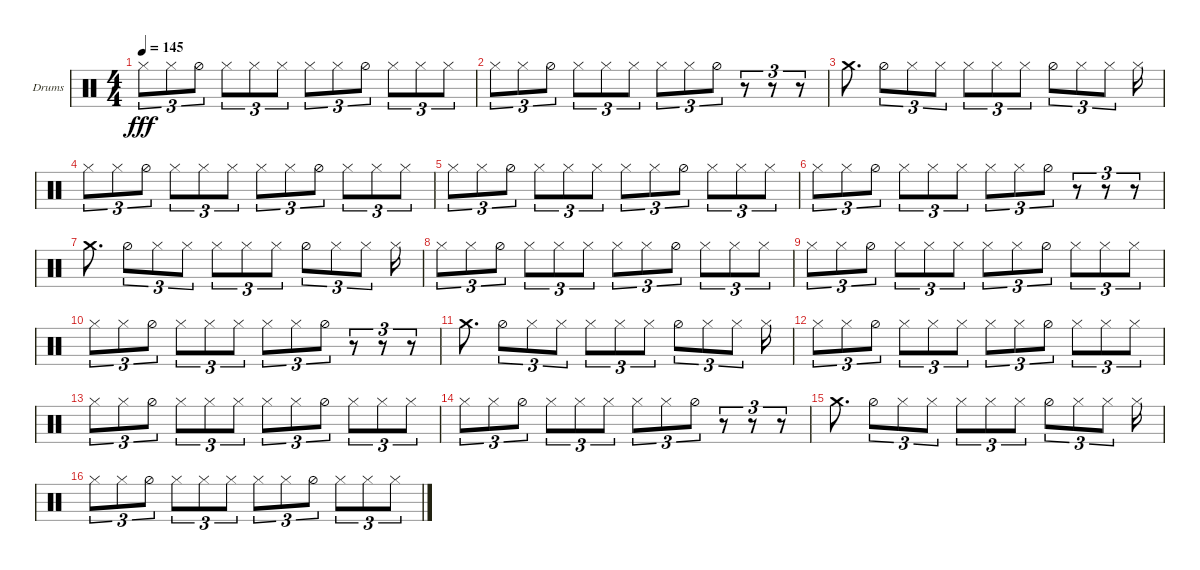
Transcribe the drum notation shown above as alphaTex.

\defaultSystemsLayout 4
\bracketExtendMode groupsimilarinstruments
\firstSystemTrackNameOrientation horizontal
\otherSystemsTrackNameOrientation horizontal
\track ("Helders" "Drums") {instrument percussion}
\staff {score}
\articulation defaults
\ts (4 4)
\tempo 145
\clef neutral
\ks c "Hi-Hat (closed)".8{tu (3 2) dy fff} "Hi-Hat (closed)".8{tu (3 2)} "Hi-Hat (half)".8{tu (3 2)} "Hi-Hat (closed)".8{tu (3 2)} "Hi-Hat (closed)".8{tu (3 2)} "Hi-Hat (closed)".8{tu (3 2)} "Hi-Hat (closed)".8{tu (3 2)} "Hi-Hat (closed)".8{tu (3 2)} "Hi-Hat (half)".8{tu (3 2)} "Hi-Hat (closed)".8{tu (3 2)} "Hi-Hat (closed)".8{tu (3 2)} "Hi-Hat (closed)".8{tu (3 2)}
|
"Hi-Hat (closed)".8{tu (3 2)} "Hi-Hat (closed)".8{tu (3 2)} "Hi-Hat (half)".8{tu (3 2)} "Hi-Hat (closed)".8{tu (3 2)} "Hi-Hat (closed)".8{tu (3 2)} "Hi-Hat (closed)".8{tu (3 2)} "Hi-Hat (closed)".8{tu (3 2)} "Hi-Hat (closed)".8{tu (3 2)} "Hi-Hat (half)".8{tu (3 2)} r.8{tu (3 2)} r.8{tu (3 2)} r.8{tu (3 2)} |
"Crash medium (hit)".8{d} "Hi-Hat (half)".8{tu (3 2)} "Hi-Hat (closed)".8{tu (3 2)} "Hi-Hat (closed)".8{tu (3 2)} "Hi-Hat (closed)".8{tu (3 2)} "Hi-Hat (closed)".8{tu (3 2)} "Hi-Hat (closed)".8{tu (3 2)} "Hi-Hat (half)".8{tu (3 2)} "Hi-Hat (closed)".8{tu (3 2)} "Hi-Hat (closed)".8{tu (3 2)} "Hi-Hat (closed)".16 |
"Hi-Hat (closed)".8{tu (3 2)} "Hi-Hat (closed)".8{tu (3 2)} "Hi-Hat (half)".8{tu (3 2)} "Hi-Hat (closed)".8{tu (3 2)} "Hi-Hat (closed)".8{tu (3 2)} "Hi-Hat (closed)".8{tu (3 2)} "Hi-Hat (closed)".8{tu (3 2)} "Hi-Hat (closed)".8{tu (3 2)} "Hi-Hat (half)".8{tu (3 2)} "Hi-Hat (closed)".8{tu (3 2)} "Hi-Hat (closed)".8{tu (3 2)} "Hi-Hat (closed)".8{tu (3 2)} |
"Hi-Hat (closed)".8{tu (3 2)} "Hi-Hat (closed)".8{tu (3 2)} "Hi-Hat (half)".8{tu (3 2)} "Hi-Hat (closed)".8{tu (3 2)} "Hi-Hat (closed)".8{tu (3 2)} "Hi-Hat (closed)".8{tu (3 2)} "Hi-Hat (closed)".8{tu (3 2)} "Hi-Hat (closed)".8{tu (3 2)} "Hi-Hat (half)".8{tu (3 2)} "Hi-Hat (closed)".8{tu (3 2)} "Hi-Hat (closed)".8{tu (3 2)} "Hi-Hat (closed)".8{tu (3 2)} |
"Hi-Hat (closed)".8{tu (3 2)} "Hi-Hat (closed)".8{tu (3 2)} "Hi-Hat (half)".8{tu (3 2)} "Hi-Hat (closed)".8{tu (3 2)} "Hi-Hat (closed)".8{tu (3 2)} "Hi-Hat (closed)".8{tu (3 2)} "Hi-Hat (closed)".8{tu (3 2)} "Hi-Hat (closed)".8{tu (3 2)} "Hi-Hat (half)".8{tu (3 2)} r.8{tu (3 2)} r.8{tu (3 2)} r.8{tu (3 2)} |
"Crash medium (hit)".8{d} "Hi-Hat (half)".8{tu (3 2)} "Hi-Hat (closed)".8{tu (3 2)} "Hi-Hat (closed)".8{tu (3 2)} "Hi-Hat (closed)".8{tu (3 2)} "Hi-Hat (closed)".8{tu (3 2)} "Hi-Hat (closed)".8{tu (3 2)} "Hi-Hat (half)".8{tu (3 2)} "Hi-Hat (closed)".8{tu (3 2)} "Hi-Hat (closed)".8{tu (3 2)} "Hi-Hat (closed)".16 |
"Hi-Hat (closed)".8{tu (3 2)} "Hi-Hat (closed)".8{tu (3 2)} "Hi-Hat (half)".8{tu (3 2)} "Hi-Hat (closed)".8{tu (3 2)} "Hi-Hat (closed)".8{tu (3 2)} "Hi-Hat (closed)".8{tu (3 2)} "Hi-Hat (closed)".8{tu (3 2)} "Hi-Hat (closed)".8{tu (3 2)} "Hi-Hat (half)".8{tu (3 2)} "Hi-Hat (closed)".8{tu (3 2)} "Hi-Hat (closed)".8{tu (3 2)} "Hi-Hat (closed)".8{tu (3 2)} |
"Hi-Hat (closed)".8{tu (3 2)} "Hi-Hat (closed)".8{tu (3 2)} "Hi-Hat (half)".8{tu (3 2)} "Hi-Hat (closed)".8{tu (3 2)} "Hi-Hat (closed)".8{tu (3 2)} "Hi-Hat (closed)".8{tu (3 2)} "Hi-Hat (closed)".8{tu (3 2)} "Hi-Hat (closed)".8{tu (3 2)} "Hi-Hat (half)".8{tu (3 2)} "Hi-Hat (closed)".8{tu (3 2)} "Hi-Hat (closed)".8{tu (3 2)} "Hi-Hat (closed)".8{tu (3 2)} |
"Hi-Hat (closed)".8{tu (3 2)} "Hi-Hat (closed)".8{tu (3 2)} "Hi-Hat (half)".8{tu (3 2)} "Hi-Hat (closed)".8{tu (3 2)} "Hi-Hat (closed)".8{tu (3 2)} "Hi-Hat (closed)".8{tu (3 2)} "Hi-Hat (closed)".8{tu (3 2)} "Hi-Hat (closed)".8{tu (3 2)} "Hi-Hat (half)".8{tu (3 2)} r.8{tu (3 2)} r.8{tu (3 2)} r.8{tu (3 2)} |
"Crash medium (hit)".8{d} "Hi-Hat (half)".8{tu (3 2)} "Hi-Hat (closed)".8{tu (3 2)} "Hi-Hat (closed)".8{tu (3 2)} "Hi-Hat (closed)".8{tu (3 2)} "Hi-Hat (closed)".8{tu (3 2)} "Hi-Hat (closed)".8{tu (3 2)} "Hi-Hat (half)".8{tu (3 2)} "Hi-Hat (closed)".8{tu (3 2)} "Hi-Hat (closed)".8{tu (3 2)} "Hi-Hat (closed)".16 |
"Hi-Hat (closed)".8{tu (3 2)} "Hi-Hat (closed)".8{tu (3 2)} "Hi-Hat (half)".8{tu (3 2)} "Hi-Hat (closed)".8{tu (3 2)} "Hi-Hat (closed)".8{tu (3 2)} "Hi-Hat (closed)".8{tu (3 2)} "Hi-Hat (closed)".8{tu (3 2)} "Hi-Hat (closed)".8{tu (3 2)} "Hi-Hat (half)".8{tu (3 2)} "Hi-Hat (closed)".8{tu (3 2)} "Hi-Hat (closed)".8{tu (3 2)} "Hi-Hat (closed)".8{tu (3 2)} |
"Hi-Hat (closed)".8{tu (3 2)} "Hi-Hat (closed)".8{tu (3 2)} "Hi-Hat (half)".8{tu (3 2)} "Hi-Hat (closed)".8{tu (3 2)} "Hi-Hat (closed)".8{tu (3 2)} "Hi-Hat (closed)".8{tu (3 2)} "Hi-Hat (closed)".8{tu (3 2)} "Hi-Hat (closed)".8{tu (3 2)} "Hi-Hat (half)".8{tu (3 2)} "Hi-Hat (closed)".8{tu (3 2)} "Hi-Hat (closed)".8{tu (3 2)} "Hi-Hat (closed)".8{tu (3 2)} |
"Hi-Hat (closed)".8{tu (3 2)} "Hi-Hat (closed)".8{tu (3 2)} "Hi-Hat (half)".8{tu (3 2)} "Hi-Hat (closed)".8{tu (3 2)} "Hi-Hat (closed)".8{tu (3 2)} "Hi-Hat (closed)".8{tu (3 2)} "Hi-Hat (closed)".8{tu (3 2)} "Hi-Hat (closed)".8{tu (3 2)} "Hi-Hat (half)".8{tu (3 2)} r.8{tu (3 2)} r.8{tu (3 2)} r.8{tu (3 2)} |
"Crash medium (hit)".8{d} "Hi-Hat (half)".8{tu (3 2)} "Hi-Hat (closed)".8{tu (3 2)} "Hi-Hat (closed)".8{tu (3 2)} "Hi-Hat (closed)".8{tu (3 2)} "Hi-Hat (closed)".8{tu (3 2)} "Hi-Hat (closed)".8{tu (3 2)} "Hi-Hat (half)".8{tu (3 2)} "Hi-Hat (closed)".8{tu (3 2)} "Hi-Hat (closed)".8{tu (3 2)} "Hi-Hat (closed)".16 |
"Hi-Hat (closed)".8{tu (3 2)} "Hi-Hat (closed)".8{tu (3 2)} "Hi-Hat (half)".8{tu (3 2)} "Hi-Hat (closed)".8{tu (3 2)} "Hi-Hat (closed)".8{tu (3 2)} "Hi-Hat (closed)".8{tu (3 2)} "Hi-Hat (closed)".8{tu (3 2)} "Hi-Hat (closed)".8{tu (3 2)} "Hi-Hat (half)".8{tu (3 2)} "Hi-Hat (closed)".8{tu (3 2)} "Hi-Hat (closed)".8{tu (3 2)} "Hi-Hat (closed)".8{tu (3 2)}
